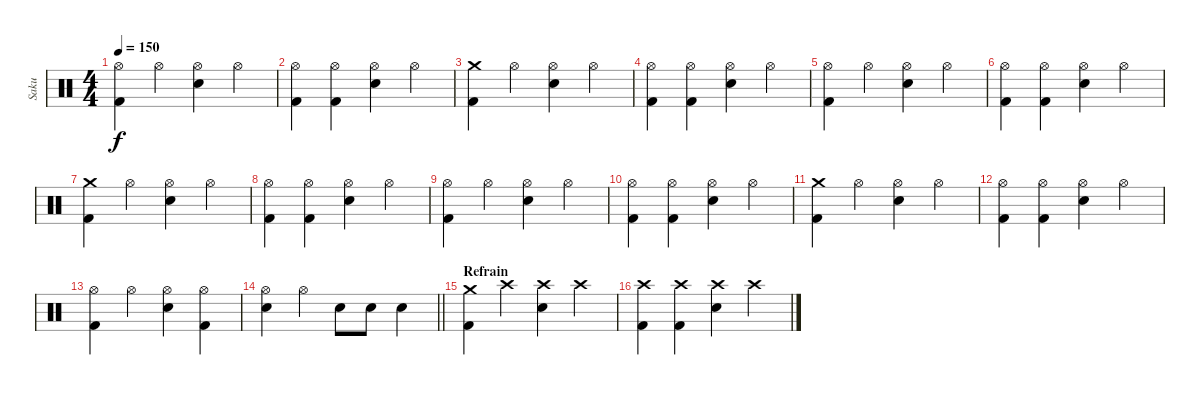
\track ("Saku" "Saku") {instrument percussion}
\staff {score}
\articulation defaults
\ts (4 4)
\tempo 150
\clef neutral
\ks c
("Hi-Hat (open)" "Kick (hit) 2").4{dy f} "Hi-Hat (open)".4 ("Hi-Hat (open)" "Electric Snare (hit)").4 "Hi-Hat (open)".4 |
("Hi-Hat (open)" "Kick (hit) 2").4 ("Hi-Hat (open)" "Kick (hit) 2").4 ("Hi-Hat (open)" "Electric Snare (hit)").4 "Hi-Hat (open)".4 |
("Crash medium (hit)" "Kick (hit) 2").4 "Hi-Hat (open)".4 ("Hi-Hat (open)" "Electric Snare (hit)").4 "Hi-Hat (open)".4 |
("Hi-Hat (open)" "Kick (hit) 2").4 ("Hi-Hat (open)" "Kick (hit) 2").4 ("Hi-Hat (open)" "Electric Snare (hit)").4 "Hi-Hat (open)".4 |
("Hi-Hat (open)" "Kick (hit) 2").4 "Hi-Hat (open)".4 ("Hi-Hat (open)" "Electric Snare (hit)").4 "Hi-Hat (open)".4 |
("Hi-Hat (open)" "Kick (hit) 2").4 ("Hi-Hat (open)" "Kick (hit) 2").4 ("Hi-Hat (open)" "Electric Snare (hit)").4 "Hi-Hat (open)".4 |
("Crash medium (hit)" "Kick (hit) 2").4 "Hi-Hat (open)".4 ("Hi-Hat (open)" "Electric Snare (hit)").4 "Hi-Hat (open)".4 |
("Hi-Hat (open)" "Kick (hit) 2").4 ("Hi-Hat (open)" "Kick (hit) 2").4 ("Hi-Hat (open)" "Electric Snare (hit)").4 "Hi-Hat (open)".4 |
("Hi-Hat (open)" "Kick (hit) 2").4 "Hi-Hat (open)".4 ("Hi-Hat (open)" "Electric Snare (hit)").4 "Hi-Hat (open)".4 |
("Hi-Hat (open)" "Kick (hit) 2").4 ("Hi-Hat (open)" "Kick (hit) 2").4 ("Hi-Hat (open)" "Electric Snare (hit)").4 "Hi-Hat (open)".4 |
("Crash medium (hit)" "Kick (hit) 2").4 "Hi-Hat (open)".4 ("Hi-Hat (open)" "Electric Snare (hit)").4 "Hi-Hat (open)".4 |
("Hi-Hat (open)" "Kick (hit) 2").4 ("Hi-Hat (open)" "Kick (hit) 2").4 ("Hi-Hat (open)" "Electric Snare (hit)").4 "Hi-Hat (open)".4 |
("Hi-Hat (open)" "Kick (hit) 2").4 "Hi-Hat (open)".4 ("Hi-Hat (open)" "Electric Snare (hit)").4 ("Hi-Hat (open)" "Kick (hit) 2").4 |
\barLineRight lightlight
("Hi-Hat (open)" "Electric Snare (hit)").4 "Hi-Hat (open)".4 "Electric Snare (hit)".8 "Electric Snare (hit)".8 "Electric Snare (hit)".4 |
\section ("" "Refrain")
("Crash medium (hit)" "Kick (hit) 2").4 "Crash high (hit)".4 ("Crash high (hit)" "Electric Snare (hit)").4 "Crash high (hit)".4 |
("Crash high (hit)" "Kick (hit) 2").4 ("Crash high (hit)" "Kick (hit) 2").4 ("Crash high (hit)" "Electric Snare (hit)").4 "Crash high (hit)".4
